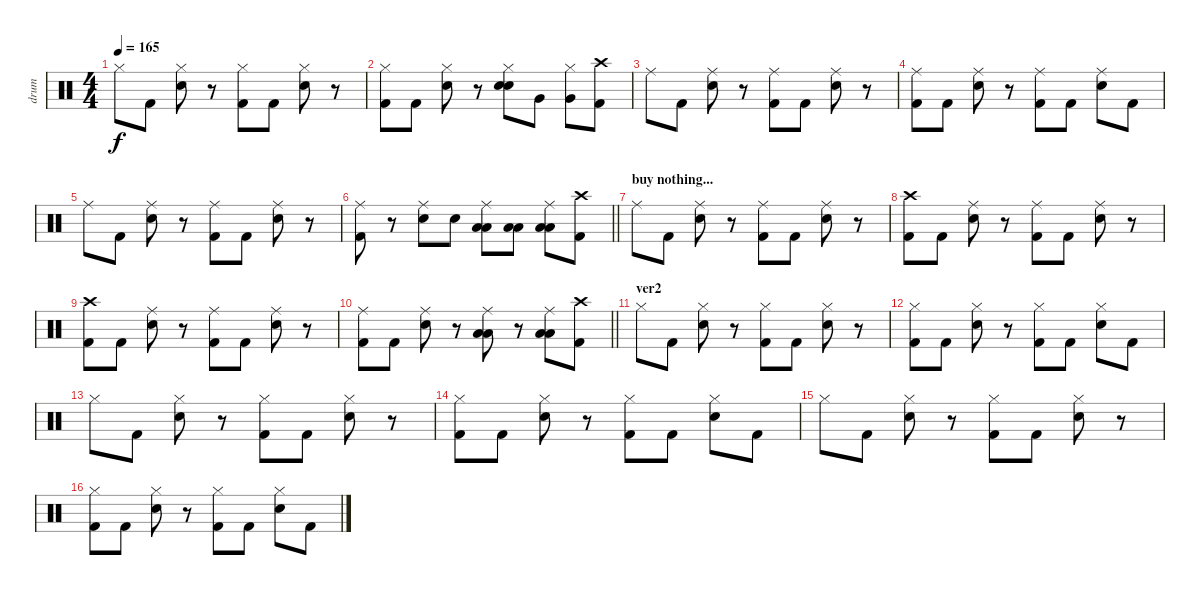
\track ("drum" "drum") {instrument percussion}
\staff {score}
\articulation defaults
\ts (4 4)
\tempo 165
\clef neutral
\ks c "Hi-Hat (closed)".8{dy f} "Kick (hit) 2".8
("Hi-Hat (closed)" "Snare (hit) 2").8 r.8 ("Hi-Hat (closed)" "Kick (hit) 2").8 "Kick (hit) 2".8 ("Hi-Hat (closed)" "Snare (hit) 2").8 r.8 |
("Hi-Hat (closed)" "Kick (hit) 2").8 "Kick (hit) 2".8 ("Hi-Hat (closed)" "Snare (hit) 2").8 r.8 ("Hi-Hat (closed)" "Snare (hit) 2" "Snare (hit) 2").8 "Very Low Tom (hit)".8 ("Hi-Hat (closed)" "Very Low Tom (hit)").8 ("Crash high (hit)" "Kick (hit) 2").8 |
"Ride (middle)".8 "Kick (hit) 2".8 ("Ride (middle)" "Snare (hit) 2").8 r.8 ("Ride (middle)" "Kick (hit) 2").8 "Kick (hit) 2".8 ("Ride (middle)" "Snare (hit) 2").8 r.8 |
("Ride (middle)" "Kick (hit) 2").8 "Kick (hit) 2".8 ("Ride (middle)" "Snare (hit) 2").8 r.8 ("Ride (middle)" "Kick (hit) 2").8 "Kick (hit) 2".8 ("Ride (middle)" "Snare (hit) 2").8 "Kick (hit) 2".8 |
"Ride (middle)".8 "Kick (hit) 2".8 ("Ride (middle)" "Snare (hit) 2").8 r.8 ("Ride (middle)" "Kick (hit) 2").8 "Kick (hit) 2".8 ("Ride (middle)" "Snare (hit) 2").8 r.8 |
\barLineRight lightlight
("Ride (middle)" "Kick (hit) 2").8 r.8 ("Ride (middle)" "Snare (hit) 2").8 "Snare (hit) 2".8 ("Ride (middle)" "Low Tom (hit)" "Low Floor Tom (hit)").8 ("Low Tom (hit)" "Low Floor Tom (hit)").8 ("Ride (middle)" "Low Tom (hit)" "Low Floor Tom (hit)").8 ("Crash high (hit)" "Kick (hit) 2").8 |
\section ("" "buy nothing...")
"Ride (middle)".8 "Kick (hit) 2".8 ("Ride (middle)" "Snare (hit) 2").8 r.8 ("Ride (middle)" "Kick (hit) 2").8 "Kick (hit) 2".8 ("Ride (middle)" "Snare (hit) 2").8 r.8 |
("Crash high (hit)" "Kick (hit) 2").8 "Kick (hit) 2".8 ("Ride (middle)" "Snare (hit) 2").8 r.8 ("Ride (middle)" "Kick (hit) 2").8 "Kick (hit) 2".8 ("Ride (middle)" "Snare (hit) 2").8 r.8 |
("Crash high (hit)" "Kick (hit) 2").8 "Kick (hit) 2".8 ("Ride (middle)" "Snare (hit) 2").8 r.8 ("Ride (middle)" "Kick (hit) 2").8 "Kick (hit) 2".8 ("Ride (middle)" "Snare (hit) 2").8 r.8 |
\barLineRight lightlight
("Ride (middle)" "Kick (hit) 2").8 "Kick (hit) 2".8 ("Ride (middle)" "Snare (hit) 2").8 r.8 ("Ride (middle)" "Low Tom (hit)" "Low Floor Tom (hit)").8 r.8 ("Ride (middle)" "Low Tom (hit)" "Low Floor Tom (hit)").8 ("Crash high (hit)" "Kick (hit) 2").8 |
\section ("" "ver2")
"Hi-Hat (closed)".8 "Kick (hit) 2".8 ("Hi-Hat (closed)" "Snare (hit) 2").8 r.8 ("Hi-Hat (closed)" "Kick (hit) 2").8 "Kick (hit) 2".8 ("Hi-Hat (closed)" "Snare (hit) 2").8 r.8 |
("Hi-Hat (closed)" "Kick (hit) 2").8 "Kick (hit) 2".8 ("Hi-Hat (closed)" "Snare (hit) 2").8 r.8 ("Hi-Hat (closed)" "Kick (hit) 2").8 "Kick (hit) 2".8 ("Hi-Hat (closed)" "Snare (hit) 2").8 "Kick (hit) 2".8 |
"Hi-Hat (closed)".8 "Kick (hit) 2".8 ("Hi-Hat (closed)" "Snare (hit) 2").8 r.8 ("Hi-Hat (closed)" "Kick (hit) 2").8 "Kick (hit) 2".8 ("Hi-Hat (closed)" "Snare (hit) 2").8 r.8 |
("Hi-Hat (closed)" "Kick (hit) 2").8 "Kick (hit) 2".8 ("Hi-Hat (closed)" "Snare (hit) 2").8 r.8 ("Hi-Hat (closed)" "Kick (hit) 2").8 "Kick (hit) 2".8 ("Hi-Hat (closed)" "Snare (hit) 2").8 "Kick (hit) 2".8 |
"Hi-Hat (closed)".8 "Kick (hit) 2".8 ("Hi-Hat (closed)" "Snare (hit) 2").8 r.8 ("Hi-Hat (closed)" "Kick (hit) 2").8 "Kick (hit) 2".8 ("Hi-Hat (closed)" "Snare (hit) 2").8 r.8 |
("Hi-Hat (closed)" "Kick (hit) 2").8 "Kick (hit) 2".8 ("Hi-Hat (closed)" "Snare (hit) 2").8 r.8 ("Hi-Hat (closed)" "Kick (hit) 2").8 "Kick (hit) 2".8 ("Hi-Hat (closed)" "Snare (hit) 2").8 "Kick (hit) 2".8
